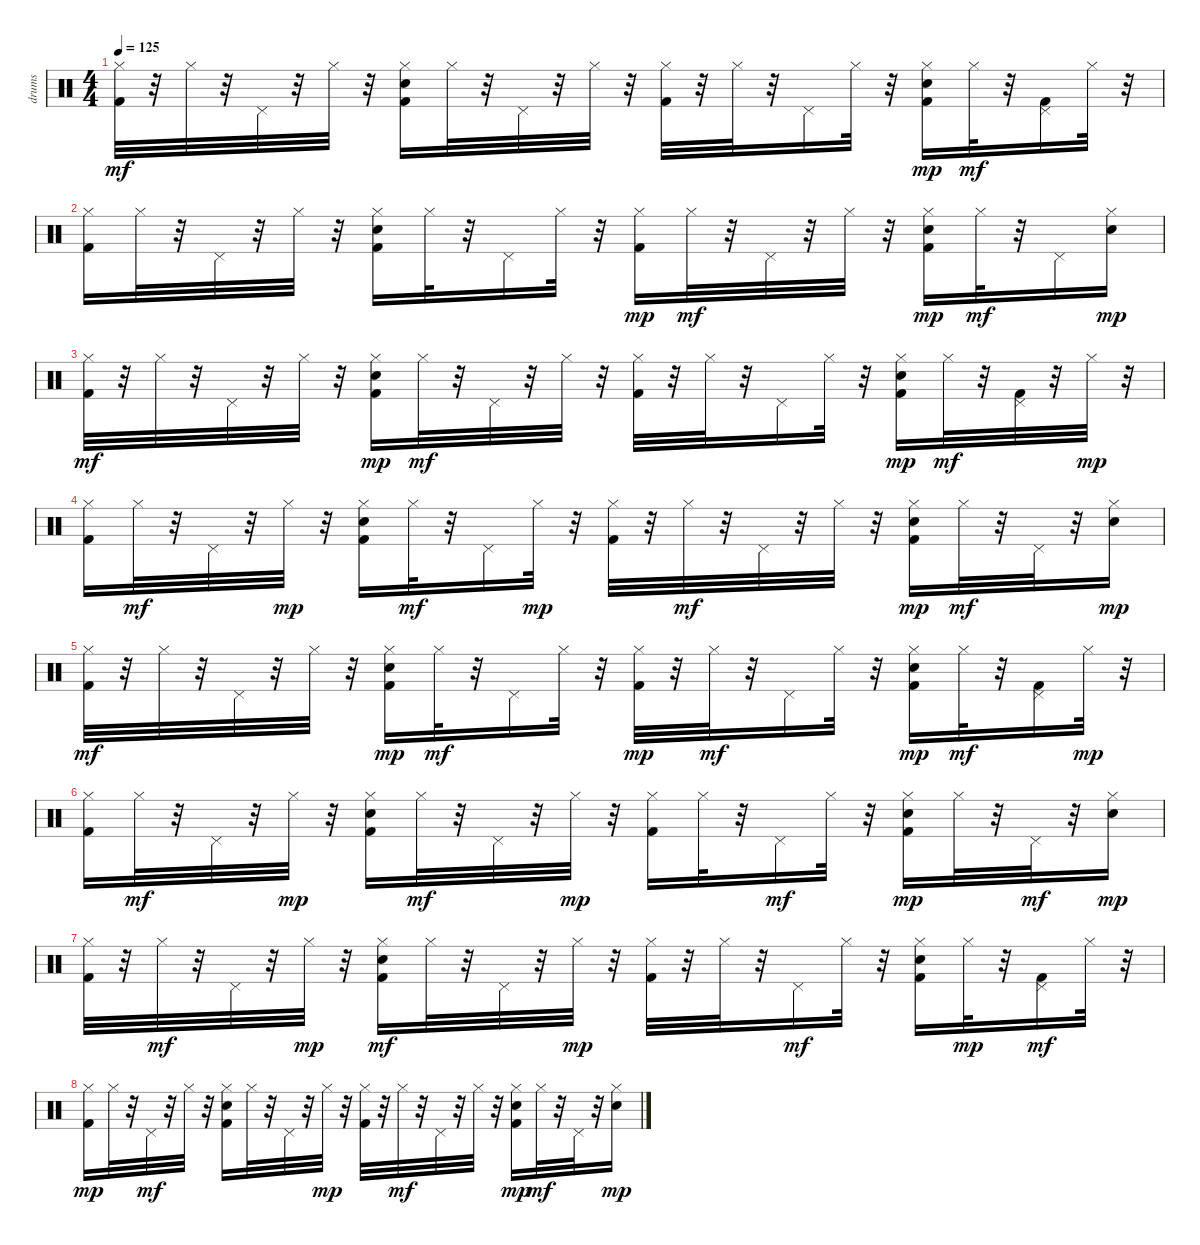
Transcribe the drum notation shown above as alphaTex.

\track ("drums   " "drums   ") {instrument percussion}
\staff {score}
\articulation defaults
\ts (4 4)
\tempo 125
\clef neutral
\ks c
("Kick (hit) 2" "Hi-Hat (closed)").32{dy mf} r.32 "Hi-Hat (closed)".32 r.32 "Pedal Hi-Hat (hit)".32 r.32 "Hi-Hat (closed)".32 r.32 ("Kick (hit) 2" "Snare (hit) 2" "Hi-Hat (closed)").16 "Hi-Hat (closed)".32 r.32 "Pedal Hi-Hat (hit)".32 r.32 "Hi-Hat (closed)".32 r.32 ("Kick (hit) 2" "Hi-Hat (closed)").32 r.32 "Hi-Hat (closed)".32 r.32 "Pedal Hi-Hat (hit)".16 "Hi-Hat (closed)".32 r.32 ("Kick (hit) 2" "Snare (hit) 2" "Hi-Hat (closed)").16{dy mp} "Hi-Hat (closed)".32{dy mf} r.32 ("Kick (hit) 2" "Pedal Hi-Hat (hit)").16 "Hi-Hat (closed)".32 r.32 |
("Kick (hit) 2" "Hi-Hat (closed)").16 "Hi-Hat (closed)".32 r.32 "Pedal Hi-Hat (hit)".32 r.32 "Hi-Hat (closed)".32 r.32 ("Kick (hit) 2" "Snare (hit) 2" "Hi-Hat (closed)").16 "Hi-Hat (closed)".32 r.32 "Pedal Hi-Hat (hit)".16 "Hi-Hat (closed)".32 r.32 ("Kick (hit) 2" "Hi-Hat (closed)").16{dy mp} "Hi-Hat (closed)".32{dy mf} r.32 "Pedal Hi-Hat (hit)".32 r.32 "Hi-Hat (closed)".32 r.32 ("Kick (hit) 2" "Snare (hit) 2" "Hi-Hat (closed)").16{dy mp} "Hi-Hat (closed)".32{dy mf} r.32 "Pedal Hi-Hat (hit)".16 ("Snare (hit) 2" "Hi-Hat (closed)").16{dy mp} |
("Kick (hit) 2" "Hi-Hat (closed)").32{dy mf} r.32 "Hi-Hat (closed)".32 r.32 "Pedal Hi-Hat (hit)".32 r.32 "Hi-Hat (closed)".32 r.32 ("Kick (hit) 2" "Snare (hit) 2" "Hi-Hat (closed)").16{dy mp} "Hi-Hat (closed)".32{dy mf} r.32 "Pedal Hi-Hat (hit)".32 r.32 "Hi-Hat (closed)".32 r.32 ("Kick (hit) 2" "Hi-Hat (closed)").32 r.32 "Hi-Hat (closed)".32 r.32 "Pedal Hi-Hat (hit)".16 "Hi-Hat (closed)".32 r.32 ("Kick (hit) 2" "Snare (hit) 2" "Hi-Hat (closed)").16{dy mp} "Hi-Hat (closed)".32{dy mf} r.32 ("Kick (hit) 2" "Pedal Hi-Hat (hit)").32 r.32 "Hi-Hat (closed)".32{dy mp} r.32 |
("Kick (hit) 2" "Hi-Hat (closed)").16 "Hi-Hat (closed)".32{dy mf} r.32 "Pedal Hi-Hat (hit)".32 r.32 "Hi-Hat (closed)".32{dy mp} r.32 ("Kick (hit) 2" "Snare (hit) 2" "Hi-Hat (closed)").16 "Hi-Hat (closed)".32{dy mf} r.32 "Pedal Hi-Hat (hit)".16 "Hi-Hat (closed)".32{dy mp} r.32 ("Kick (hit) 2" "Hi-Hat (closed)").32 r.32 "Hi-Hat (closed)".32{dy mf} r.32 "Pedal Hi-Hat (hit)".32 r.32 "Hi-Hat (closed)".32 r.32 ("Kick (hit) 2" "Snare (hit) 2" "Hi-Hat (closed)").16{dy mp} "Hi-Hat (closed)".32{dy mf} r.32 "Pedal Hi-Hat (hit)".32 r.32 ("Snare (hit) 2" "Hi-Hat (closed)").16{dy mp} |
("Kick (hit) 2" "Hi-Hat (closed)").32{dy mf} r.32 "Hi-Hat (closed)".32 r.32 "Pedal Hi-Hat (hit)".32 r.32 "Hi-Hat (closed)".32 r.32 ("Kick (hit) 2" "Snare (hit) 2" "Hi-Hat (closed)").16{dy mp} "Hi-Hat (closed)".32{dy mf} r.32 "Pedal Hi-Hat (hit)".16 "Hi-Hat (closed)".32 r.32 ("Kick (hit) 2" "Hi-Hat (closed)").32{dy mp} r.32 "Hi-Hat (closed)".32{dy mf} r.32 "Pedal Hi-Hat (hit)".16 "Hi-Hat (closed)".32 r.32 ("Kick (hit) 2" "Snare (hit) 2" "Hi-Hat (closed)").16{dy mp} "Hi-Hat (closed)".32{dy mf} r.32 ("Kick (hit) 2" "Pedal Hi-Hat (hit)").16 "Hi-Hat (closed)".32{dy mp} r.32 |
("Kick (hit) 2" "Hi-Hat (closed)").16 "Hi-Hat (closed)".32{dy mf} r.32 "Pedal Hi-Hat (hit)".32 r.32 "Hi-Hat (closed)".32{dy mp} r.32 ("Kick (hit) 2" "Snare (hit) 2" "Hi-Hat (closed)").16 "Hi-Hat (closed)".32{dy mf} r.32 "Pedal Hi-Hat (hit)".32 r.32 "Hi-Hat (closed)".32{dy mp} r.32 ("Kick (hit) 2" "Hi-Hat (closed)").16 "Hi-Hat (closed)".32 r.32 "Pedal Hi-Hat (hit)".16{dy mf} "Hi-Hat (closed)".32 r.32 ("Kick (hit) 2" "Snare (hit) 2" "Hi-Hat (closed)").16{dy mp} "Hi-Hat (closed)".32 r.32 "Pedal Hi-Hat (hit)".32{dy mf} r.32 ("Snare (hit) 2" "Hi-Hat (closed)").16{dy mp} |
("Kick (hit) 2" "Hi-Hat (closed)").32 r.32 "Hi-Hat (closed)".32{dy mf} r.32 "Pedal Hi-Hat (hit)".32 r.32 "Hi-Hat (closed)".32{dy mp} r.32 ("Kick (hit) 2" "Snare (hit) 2" "Hi-Hat (closed)").16{dy mf} "Hi-Hat (closed)".32 r.32 "Pedal Hi-Hat (hit)".32 r.32 "Hi-Hat (closed)".32{dy mp} r.32 ("Kick (hit) 2" "Hi-Hat (closed)").32 r.32 "Hi-Hat (closed)".32 r.32 "Pedal Hi-Hat (hit)".16{dy mf} "Hi-Hat (closed)".32 r.32 ("Kick (hit) 2" "Snare (hit) 2" "Hi-Hat (closed)").16 "Hi-Hat (closed)".32{dy mp} r.32 ("Kick (hit) 2" "Pedal Hi-Hat (hit)").16{dy mf} "Hi-Hat (closed)".32 r.32 |
("Kick (hit) 2" "Hi-Hat (closed)").16{dy mp} "Hi-Hat (closed)".32 r.32 "Pedal Hi-Hat (hit)".32{dy mf} r.32 "Hi-Hat (closed)".32 r.32 ("Kick (hit) 2" "Snare (hit) 2" "Hi-Hat (closed)").16 "Hi-Hat (closed)".32 r.32 "Pedal Hi-Hat (hit)".32 r.32 "Hi-Hat (closed)".32{dy mp} r.32 ("Kick (hit) 2" "Hi-Hat (closed)").32 r.32 "Hi-Hat (closed)".32{dy mf} r.32 "Pedal Hi-Hat (hit)".32 r.32 "Hi-Hat (closed)".32 r.32 ("Kick (hit) 2" "Snare (hit) 2" "Hi-Hat (closed)").16{dy mp} "Hi-Hat (closed)".32{dy mf} r.32 "Pedal Hi-Hat (hit)".32 r.32 ("Snare (hit) 2" "Hi-Hat (closed)").16{dy mp}
